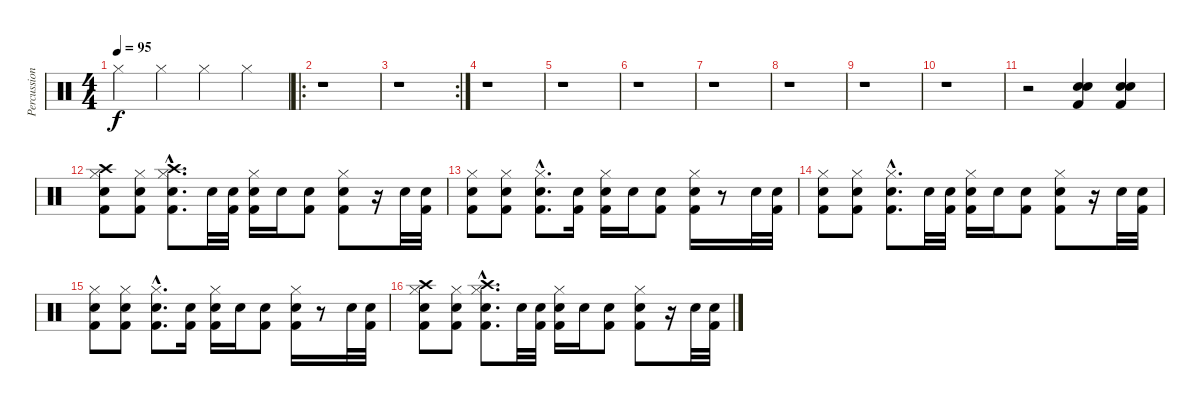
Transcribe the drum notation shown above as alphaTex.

\track ("Percussions" "Percussion") {instrument percussion}
\staff {score}
\articulation defaults
\ts (4 4)
\tempo 95
\clef neutral
\ks c "Hi-Hat (closed)".4{dy f} "Hi-Hat (closed)".4 "Hi-Hat (closed)".4 "Hi-Hat (closed)".4
|
\ro
r.1 |
\rc 2
r.1 |
r.1 |
r.1 |
r.1 |
r.1 |
r.1 |
r.1 |
r.1 |
r.2 ("Kick (hit) 2" "Snare (hit) 2" "Snare (hit) 2").4 ("Kick (hit) 2" "Snare (hit) 2" "Snare (hit) 2").4 |
("Kick (hit) 2" "Snare (hit) 2" "Hi-Hat (closed)" "Crash high (hit)").8 ("Kick (hit) 2" "Snare (hit) 2" "Hi-Hat (closed)").8 ("Kick (hit) 2"{hac} "Snare (hit) 2"{hac} "Hi-Hat (closed)"{hac} "Crash high (hit)"{hac}).8{d} "Snare (hit) 2".32 ("Kick (hit) 2" "Snare (hit) 2").32 ("Kick (hit) 2" "Snare (hit) 2" "Hi-Hat (closed)").16 "Snare (hit) 2".16 ("Kick (hit) 2" "Snare (hit) 2").8 ("Kick (hit) 2" "Snare (hit) 2" "Hi-Hat (closed)").8 r.16 "Snare (hit) 2".32 ("Kick (hit) 2" "Snare (hit) 2").32 |
("Kick (hit) 2" "Snare (hit) 2" "Hi-Hat (closed)").8 ("Kick (hit) 2" "Snare (hit) 2" "Hi-Hat (closed)").8 ("Kick (hit) 2"{hac} "Snare (hit) 2"{hac} "Hi-Hat (closed)"{hac}).8{d} ("Kick (hit) 2" "Snare (hit) 2").16 ("Kick (hit) 2" "Snare (hit) 2" "Hi-Hat (closed)").16 "Snare (hit) 2".16 ("Kick (hit) 2" "Snare (hit) 2").8 ("Kick (hit) 2" "Snare (hit) 2" "Hi-Hat (closed)").16 r.8 "Snare (hit) 2".32 ("Kick (hit) 2" "Snare (hit) 2").32 |
("Kick (hit) 2" "Snare (hit) 2" "Hi-Hat (closed)").8 ("Kick (hit) 2" "Snare (hit) 2" "Hi-Hat (closed)").8 ("Kick (hit) 2"{hac} "Snare (hit) 2"{hac} "Hi-Hat (closed)"{hac}).8{d} "Snare (hit) 2".32 ("Kick (hit) 2" "Snare (hit) 2").32 ("Kick (hit) 2" "Snare (hit) 2" "Hi-Hat (closed)").16 "Snare (hit) 2".16 ("Kick (hit) 2" "Snare (hit) 2").8 ("Kick (hit) 2" "Snare (hit) 2" "Hi-Hat (closed)").8 r.16 "Snare (hit) 2".32 ("Kick (hit) 2" "Snare (hit) 2").32 |
("Kick (hit) 2" "Snare (hit) 2" "Hi-Hat (closed)").8 ("Kick (hit) 2" "Snare (hit) 2" "Hi-Hat (closed)").8 ("Kick (hit) 2"{hac} "Snare (hit) 2"{hac} "Hi-Hat (closed)"{hac}).8{d} ("Kick (hit) 2" "Snare (hit) 2").16 ("Kick (hit) 2" "Snare (hit) 2" "Hi-Hat (closed)").16 "Snare (hit) 2".16 ("Kick (hit) 2" "Snare (hit) 2").8 ("Kick (hit) 2" "Snare (hit) 2" "Hi-Hat (closed)").16 r.8 "Snare (hit) 2".32 ("Kick (hit) 2" "Snare (hit) 2").32 |
("Kick (hit) 2" "Snare (hit) 2" "Hi-Hat (closed)" "Crash high (hit)").8 ("Kick (hit) 2" "Snare (hit) 2" "Hi-Hat (closed)").8 ("Kick (hit) 2"{hac} "Snare (hit) 2"{hac} "Hi-Hat (closed)"{hac} "Crash high (hit)"{hac}).8{d} "Snare (hit) 2".32 ("Kick (hit) 2" "Snare (hit) 2").32 ("Kick (hit) 2" "Snare (hit) 2" "Hi-Hat (closed)").16 "Snare (hit) 2".16 ("Kick (hit) 2" "Snare (hit) 2").8 ("Kick (hit) 2" "Snare (hit) 2" "Hi-Hat (closed)").8 r.16 "Snare (hit) 2".32 ("Kick (hit) 2" "Snare (hit) 2").32
